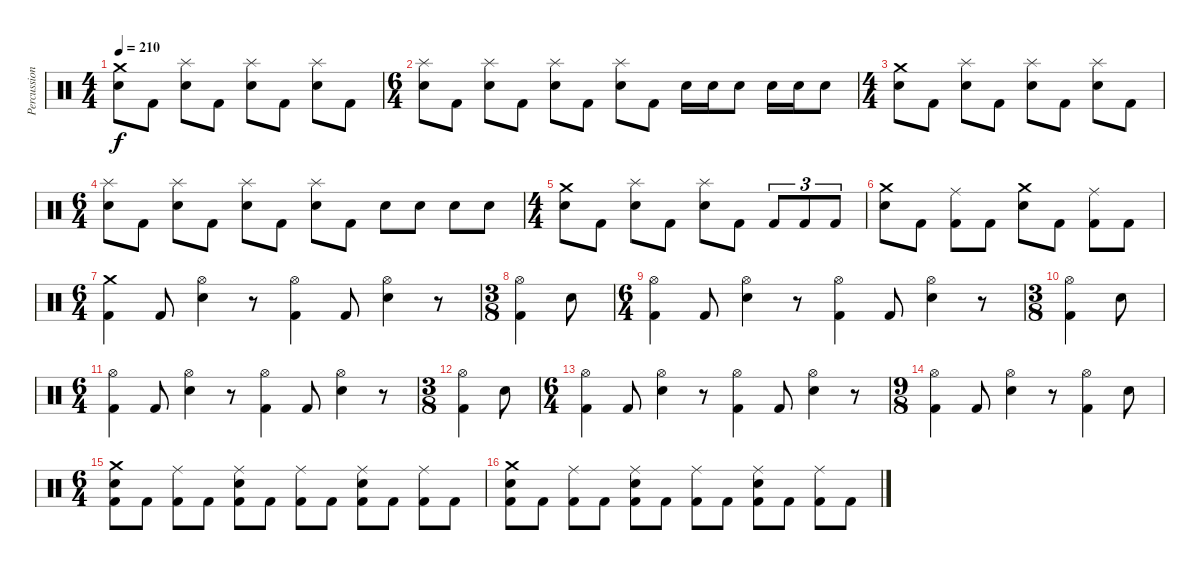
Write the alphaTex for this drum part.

\track ("Percussion" "Percussion") {instrument percussion}
\staff {score}
\articulation defaults
\ts (4 4)
\tempo 210
\clef neutral
\ks c
("Crash medium (hit)" "Electric Snare (hit)").8{dy f} "Kick (hit) 2".8 ("Splash (hit)" "Electric Snare (hit)").8 "Kick (hit) 2".8 ("Splash (hit)" "Electric Snare (hit)").8 "Kick (hit) 2".8 ("Splash (hit)" "Electric Snare (hit)").8 "Kick (hit) 2".8 |
\ts (6 4)
("Splash (hit)" "Electric Snare (hit)").8 "Kick (hit) 2".8 ("Splash (hit)" "Electric Snare (hit)").8 "Kick (hit) 2".8 ("Splash (hit)" "Electric Snare (hit)").8 "Kick (hit) 2".8 ("Splash (hit)" "Electric Snare (hit)").8 "Kick (hit) 2".8 "Electric Snare (hit)".16 "Electric Snare (hit)".16 "Electric Snare (hit)".8 "Electric Snare (hit)".16 "Electric Snare (hit)".16 "Electric Snare (hit)".8 |
\ts (4 4)
("Crash medium (hit)" "Electric Snare (hit)").8 "Kick (hit) 2".8 ("Splash (hit)" "Electric Snare (hit)").8 "Kick (hit) 2".8 ("Splash (hit)" "Electric Snare (hit)").8 "Kick (hit) 2".8 ("Splash (hit)" "Electric Snare (hit)").8 "Kick (hit) 2".8 |
\ts (6 4)
("Splash (hit)" "Electric Snare (hit)").8 "Kick (hit) 2".8 ("Splash (hit)" "Electric Snare (hit)").8 "Kick (hit) 2".8 ("Splash (hit)" "Electric Snare (hit)").8 "Kick (hit) 2".8 ("Splash (hit)" "Electric Snare (hit)").8 "Kick (hit) 2".8 "Electric Snare (hit)".8 "Electric Snare (hit)".8 "Electric Snare (hit)".8 "Electric Snare (hit)".8 |
\ts (4 4)
("Crash medium (hit)" "Electric Snare (hit)").8 "Kick (hit) 2".8 ("Splash (hit)" "Electric Snare (hit)").8 "Kick (hit) 2".8 ("Splash (hit)" "Electric Snare (hit)").8 "Kick (hit) 2".8 "Kick (hit) 2".8{tu (3 2)} "Kick (hit) 2".8{tu (3 2)} "Kick (hit) 2".8{tu (3 2)} |
("Crash medium (hit)" "Electric Snare (hit)").8 "Kick (hit) 2".8 ("Ride (middle)" "Kick (hit) 2").8 "Kick (hit) 2".8 ("Crash medium (hit)" "Electric Snare (hit)").8 "Kick (hit) 2".8 ("Ride (middle)" "Kick (hit) 2").8 "Kick (hit) 2".8 |
\ts (6 4)
("Crash medium (hit)" "Kick (hit) 2").4 "Kick (hit) 2".8 ("Hi-Hat (open)" "Electric Snare (hit)").4 r.8 ("Hi-Hat (open)" "Kick (hit) 2").4 "Kick (hit) 2".8 ("Hi-Hat (open)" "Electric Snare (hit)").4 r.8 |
\ts (3 8)
("Hi-Hat (open)" "Kick (hit) 2").4 "Electric Snare (hit)".8 |
\ts (6 4)
("Hi-Hat (open)" "Kick (hit) 2").4 "Kick (hit) 2".8 ("Hi-Hat (open)" "Electric Snare (hit)").4 r.8 ("Hi-Hat (open)" "Kick (hit) 2").4 "Kick (hit) 2".8 ("Hi-Hat (open)" "Electric Snare (hit)").4 r.8 |
\ts (3 8)
("Hi-Hat (open)" "Kick (hit) 2").4 "Electric Snare (hit)".8 |
\ts (6 4)
("Hi-Hat (open)" "Kick (hit) 2").4 "Kick (hit) 2".8 ("Hi-Hat (open)" "Electric Snare (hit)").4 r.8 ("Hi-Hat (open)" "Kick (hit) 2").4 "Kick (hit) 2".8 ("Hi-Hat (open)" "Electric Snare (hit)").4 r.8 |
\ts (3 8)
("Hi-Hat (open)" "Kick (hit) 2").4 "Electric Snare (hit)".8 |
\ts (6 4)
("Hi-Hat (open)" "Kick (hit) 2").4 "Kick (hit) 2".8 ("Hi-Hat (open)" "Electric Snare (hit)").4 r.8 ("Hi-Hat (open)" "Kick (hit) 2").4 "Kick (hit) 2".8 ("Hi-Hat (open)" "Electric Snare (hit)").4 r.8 |
\ts (9 8)
("Hi-Hat (open)" "Kick (hit) 2").4 "Kick (hit) 2".8 ("Hi-Hat (open)" "Electric Snare (hit)").4 r.8 ("Hi-Hat (open)" "Kick (hit) 2").4 "Electric Snare (hit)".8 |
\ts (6 4)
("Crash medium (hit)" "Electric Snare (hit)" "Kick (hit) 2").8 "Kick (hit) 2".8 ("Ride (middle)" "Kick (hit) 2").8 "Kick (hit) 2".8 ("Ride (middle)" "Electric Snare (hit)" "Kick (hit) 2").8 "Kick (hit) 2".8 ("Ride (middle)" "Kick (hit) 2").8 "Kick (hit) 2".8 ("Ride (middle)" "Electric Snare (hit)" "Kick (hit) 2").8 "Kick (hit) 2".8 ("Ride (middle)" "Kick (hit) 2").8 "Kick (hit) 2".8 |
("Crash medium (hit)" "Electric Snare (hit)" "Kick (hit) 2").8 "Kick (hit) 2".8 ("Ride (middle)" "Kick (hit) 2").8 "Kick (hit) 2".8 ("Ride (middle)" "Electric Snare (hit)" "Kick (hit) 2").8 "Kick (hit) 2".8 ("Ride (middle)" "Kick (hit) 2").8 "Kick (hit) 2".8 ("Ride (middle)" "Electric Snare (hit)" "Kick (hit) 2").8 "Kick (hit) 2".8 ("Ride (middle)" "Kick (hit) 2").8 "Kick (hit) 2".8
